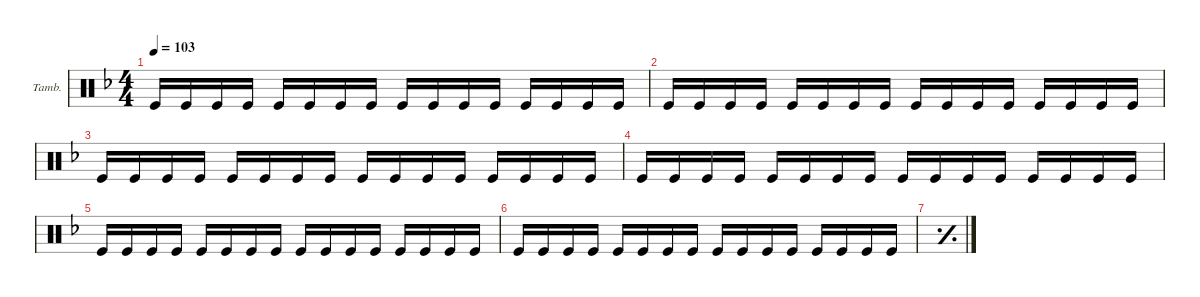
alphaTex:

\hideDynamics
\bracketExtendMode groupsimilarinstruments
\firstSystemTrackNameOrientation horizontal
\otherSystemsTrackNameOrientation horizontal
\track ("Tambourine" "Tamb.") {multiBarRest instrument percussion}
\staff {score}
\articulation defaults
\ts (4 4)
\tempo 103
\clef neutral
\ks f "Kick (hit)".16{dy f} "Kick (hit)".16{dy p} "Kick (hit)".16 "Kick (hit)".16 "Kick (hit)".16{dy f} "Kick (hit)".16{dy p} "Kick (hit)".16 "Kick (hit)".16 "Kick (hit)".16{dy f} "Kick (hit)".16{dy p} "Kick (hit)".16 "Kick (hit)".16 "Kick (hit)".16{dy f} "Kick (hit)".16{dy p} "Kick (hit)".16 "Kick (hit)".16
|
"Kick (hit)".16{dy f} "Kick (hit)".16{dy p} "Kick (hit)".16 "Kick (hit)".16 "Kick (hit)".16{dy f} "Kick (hit)".16{dy p} "Kick (hit)".16 "Kick (hit)".16 "Kick (hit)".16{dy f} "Kick (hit)".16{dy p} "Kick (hit)".16 "Kick (hit)".16 "Kick (hit)".16{dy f} "Kick (hit)".16{dy p} "Kick (hit)".16 "Kick (hit)".16 |
"Kick (hit)".16{dy f} "Kick (hit)".16{dy p} "Kick (hit)".16 "Kick (hit)".16 "Kick (hit)".16{dy f} "Kick (hit)".16{dy p} "Kick (hit)".16 "Kick (hit)".16 "Kick (hit)".16{dy f} "Kick (hit)".16{dy p} "Kick (hit)".16 "Kick (hit)".16 "Kick (hit)".16{dy f} "Kick (hit)".16{dy p} "Kick (hit)".16 "Kick (hit)".16 |
"Kick (hit)".16{dy f} "Kick (hit)".16{dy p} "Kick (hit)".16 "Kick (hit)".16 "Kick (hit)".16{dy f} "Kick (hit)".16{dy p} "Kick (hit)".16 "Kick (hit)".16 "Kick (hit)".16{dy f} "Kick (hit)".16{dy p} "Kick (hit)".16 "Kick (hit)".16 "Kick (hit)".16{dy f} "Kick (hit)".16{dy p} "Kick (hit)".16 "Kick (hit)".16 |
"Kick (hit)".16{dy f} "Kick (hit)".16{dy p} "Kick (hit)".16 "Kick (hit)".16 "Kick (hit)".16{dy f} "Kick (hit)".16{dy p} "Kick (hit)".16 "Kick (hit)".16 "Kick (hit)".16{dy f} "Kick (hit)".16{dy p} "Kick (hit)".16 "Kick (hit)".16 "Kick (hit)".16{dy f} "Kick (hit)".16{dy p} "Kick (hit)".16 "Kick (hit)".16 |
"Kick (hit)".16{dy f} "Kick (hit)".16{dy p} "Kick (hit)".16 "Kick (hit)".16 "Kick (hit)".16{dy f} "Kick (hit)".16{dy p} "Kick (hit)".16 "Kick (hit)".16 "Kick (hit)".16{dy f} "Kick (hit)".16{dy p} "Kick (hit)".16 "Kick (hit)".16 "Kick (hit)".16{dy f} "Kick (hit)".16{dy p} "Kick (hit)".16 "Kick (hit)".16 |
\simile simple
